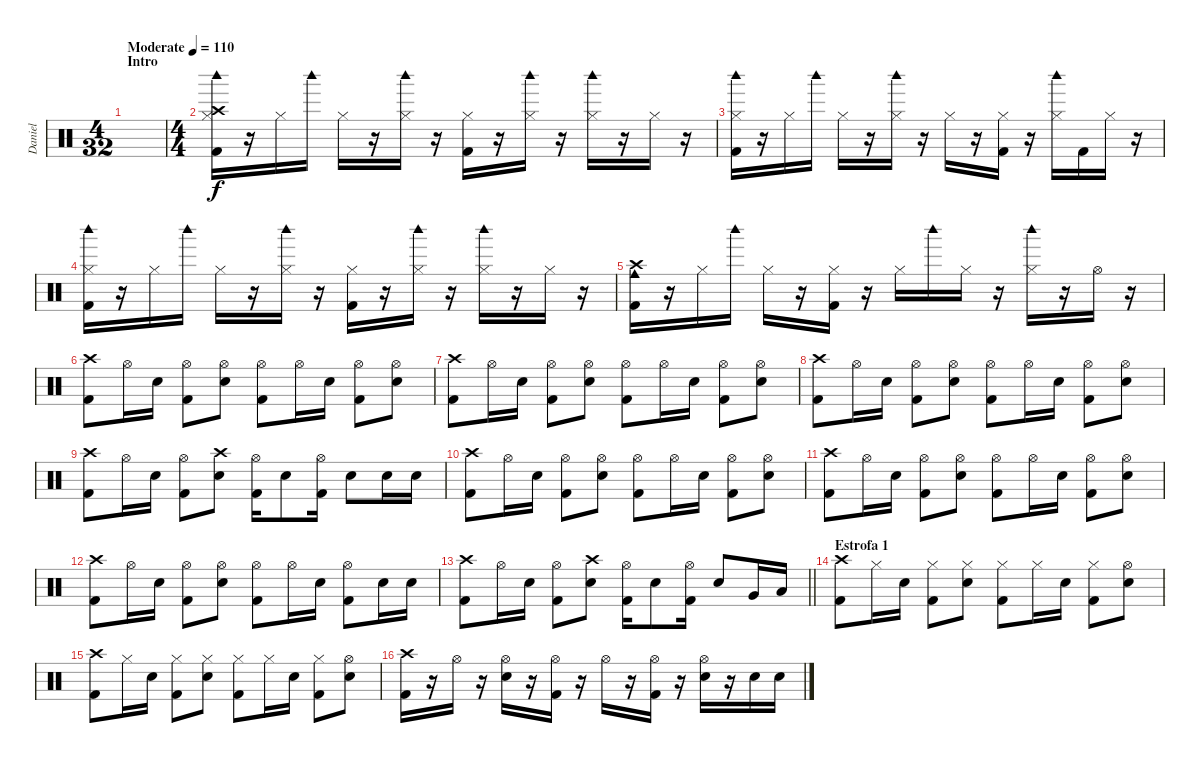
\track ("Daniel" "Daniel") {instrument percussion}
\staff {score}
\articulation defaults
\ts (4 32)
\section ("" "Intro")
\tempo (110 "Moderate")
\clef neutral
\ks c
|
\ts (4 4)
("Crash high (hit)" "Hi-Hat (closed)" "Woodblock high (hit)" "Kick (hit) 2").16 r.16 "Hi-Hat (closed)".16 "Woodblock high (hit)".16 "Hi-Hat (closed)".16 r.16 ("Hi-Hat (closed)" "Woodblock high (hit)").16 r.16 ("Hi-Hat (closed)" "Kick (hit) 2").16 r.16 ("Hi-Hat (closed)" "Woodblock high (hit)").16 r.16 ("Hi-Hat (closed)" "Woodblock high (hit)").16 r.16 "Hi-Hat (closed)".16 r.16 |
("Hi-Hat (closed)" "Woodblock high (hit)" "Kick (hit) 2").16 r.16 "Hi-Hat (closed)".16 "Woodblock high (hit)".16 "Hi-Hat (closed)".16 r.16 ("Hi-Hat (closed)" "Woodblock high (hit)").16 r.16 "Hi-Hat (closed)".16 r.16 ("Hi-Hat (closed)" "Kick (hit) 2").16 r.16 ("Hi-Hat (closed)" "Woodblock high (hit)").16 "Kick (hit) 2".16 "Hi-Hat (closed)".16 r.16 |
("Hi-Hat (closed)" "Woodblock high (hit)" "Kick (hit) 2").16 r.16 "Hi-Hat (closed)".16 "Woodblock high (hit)".16 "Hi-Hat (closed)".16 r.16 ("Hi-Hat (closed)" "Woodblock high (hit)").16 r.16 ("Hi-Hat (closed)" "Kick (hit) 2").16 r.16 ("Hi-Hat (closed)" "Woodblock high (hit)").16 r.16 ("Hi-Hat (closed)" "Woodblock high (hit)").16 r.16 "Hi-Hat (closed)".16 r.16 |
("Crash high (hit)" "Cowbell medium (hit)" "Kick (hit) 2").16 r.16 "Hi-Hat (closed)".16 "Woodblock high (hit)".16 "Hi-Hat (closed)".16 r.16 ("Hi-Hat (closed)" "Kick (hit) 2").16 r.16 "Hi-Hat (closed)".16 "Woodblock high (hit)".16 "Hi-Hat (closed)".16 r.16 ("Hi-Hat (closed)" "Woodblock high (hit)").16 r.16 "Hi-Hat (open)".16 r.16 |
("Crash high (hit)" "Kick (hit) 2").8 "Hi-Hat (open)".16 "Snare (hit) 2".16 ("Hi-Hat (open)" "Kick (hit) 2").8 ("Hi-Hat (open)" "Snare (hit) 2").8 ("Hi-Hat (open)" "Kick (hit) 2").8 "Hi-Hat (open)".16 "Snare (hit) 2".16 ("Hi-Hat (open)" "Kick (hit) 2").8 ("Hi-Hat (open)" "Snare (hit) 2").8 |
("Crash high (hit)" "Kick (hit) 2").8 "Hi-Hat (open)".16 "Snare (hit) 2".16 ("Hi-Hat (open)" "Kick (hit) 2").8 ("Hi-Hat (open)" "Snare (hit) 2").8 ("Hi-Hat (open)" "Kick (hit) 2").8 "Hi-Hat (open)".16 "Snare (hit) 2".16 ("Hi-Hat (open)" "Kick (hit) 2").8 ("Hi-Hat (open)" "Snare (hit) 2").8 |
("Crash high (hit)" "Kick (hit) 2").8 "Hi-Hat (open)".16 "Snare (hit) 2".16 ("Hi-Hat (open)" "Kick (hit) 2").8 ("Hi-Hat (open)" "Snare (hit) 2").8 ("Hi-Hat (open)" "Kick (hit) 2").8 "Hi-Hat (open)".16 "Snare (hit) 2".16 ("Hi-Hat (open)" "Kick (hit) 2").8 ("Hi-Hat (open)" "Snare (hit) 2").8 |
("Crash high (hit)" "Kick (hit) 2").8 "Hi-Hat (open)".16 "Snare (hit) 2".16 ("Hi-Hat (open)" "Kick (hit) 2").8 ("Crash high (hit)" "Snare (hit) 2").8 ("Hi-Hat (open)" "Kick (hit) 2").16 "Snare (hit) 2".8 ("Hi-Hat (open)" "Kick (hit) 2").16 "Snare (hit) 2".8 "Snare (hit) 2".16 "Snare (hit) 2".16 |
("Crash high (hit)" "Kick (hit) 2").8 "Hi-Hat (open)".16 "Snare (hit) 2".16 ("Hi-Hat (open)" "Kick (hit) 2").8 ("Hi-Hat (open)" "Snare (hit) 2").8 ("Hi-Hat (open)" "Kick (hit) 2").8 "Hi-Hat (open)".16 "Snare (hit) 2".16 ("Hi-Hat (open)" "Kick (hit) 2").8 ("Hi-Hat (open)" "Snare (hit) 2").8 |
("Crash high (hit)" "Kick (hit) 2").8 "Hi-Hat (open)".16 "Snare (hit) 2".16 ("Hi-Hat (open)" "Kick (hit) 2").8 ("Hi-Hat (open)" "Snare (hit) 2").8 ("Hi-Hat (open)" "Kick (hit) 2").8 "Hi-Hat (open)".16 "Snare (hit) 2".16 ("Hi-Hat (open)" "Kick (hit) 2").8 ("Hi-Hat (open)" "Snare (hit) 2").8 |
("Crash high (hit)" "Kick (hit) 2").8 "Hi-Hat (open)".16 "Snare (hit) 2".16 ("Hi-Hat (open)" "Kick (hit) 2").8 ("Hi-Hat (open)" "Snare (hit) 2").8 ("Hi-Hat (open)" "Kick (hit) 2").8 "Hi-Hat (open)".16 "Snare (hit) 2".16 ("Hi-Hat (open)" "Kick (hit) 2").8 "Snare (hit) 2".16 "Snare (hit) 2".16 |
\barLineRight lightlight
("Crash high (hit)" "Kick (hit) 2").8 "Hi-Hat (open)".16 "Snare (hit) 2".16 ("Hi-Hat (open)" "Kick (hit) 2").8 ("Crash high (hit)" "Snare (hit) 2").8 ("Hi-Hat (open)" "Kick (hit) 2").16 "Snare (hit) 2".8 ("Hi-Hat (open)" "Kick (hit) 2").16 "Snare (hit) 2".8 "Very Low Tom (hit)".16 "Low Floor Tom (hit)".16 |
\section ("" "Estrofa 1")
("Crash high (hit)" "Kick (hit) 2").8 "Hi-Hat (closed)".16 "Snare (hit) 2".16 ("Hi-Hat (closed)" "Kick (hit) 2").8 ("Hi-Hat (closed)" "Snare (hit) 2").8 ("Hi-Hat (closed)" "Kick (hit) 2").8 "Hi-Hat (closed)".16 "Snare (hit) 2".16 ("Hi-Hat (closed)" "Kick (hit) 2").8 ("Hi-Hat (open)" "Snare (hit) 2").8 |
("Crash high (hit)" "Kick (hit) 2").8 "Hi-Hat (closed)".16 "Snare (hit) 2".16 ("Hi-Hat (closed)" "Kick (hit) 2").8 ("Hi-Hat (closed)" "Snare (hit) 2").8 ("Hi-Hat (closed)" "Kick (hit) 2").8 "Hi-Hat (closed)".16 "Snare (hit) 2".16 ("Hi-Hat (closed)" "Kick (hit) 2").8 ("Hi-Hat (open)" "Snare (hit) 2").8 |
("Crash high (hit)" "Kick (hit) 2").16 r.16 "Hi-Hat (open)".16 r.16 ("Hi-Hat (open)" "Snare (hit) 2").16 r.16 ("Hi-Hat (open)" "Kick (hit) 2").16 r.16 "Hi-Hat (open)".16 r.16 ("Hi-Hat (open)" "Kick (hit) 2").16 r.16 ("Hi-Hat (open)" "Snare (hit) 2").16 r.16 "Snare (hit) 2".16 "Snare (hit) 2".16
